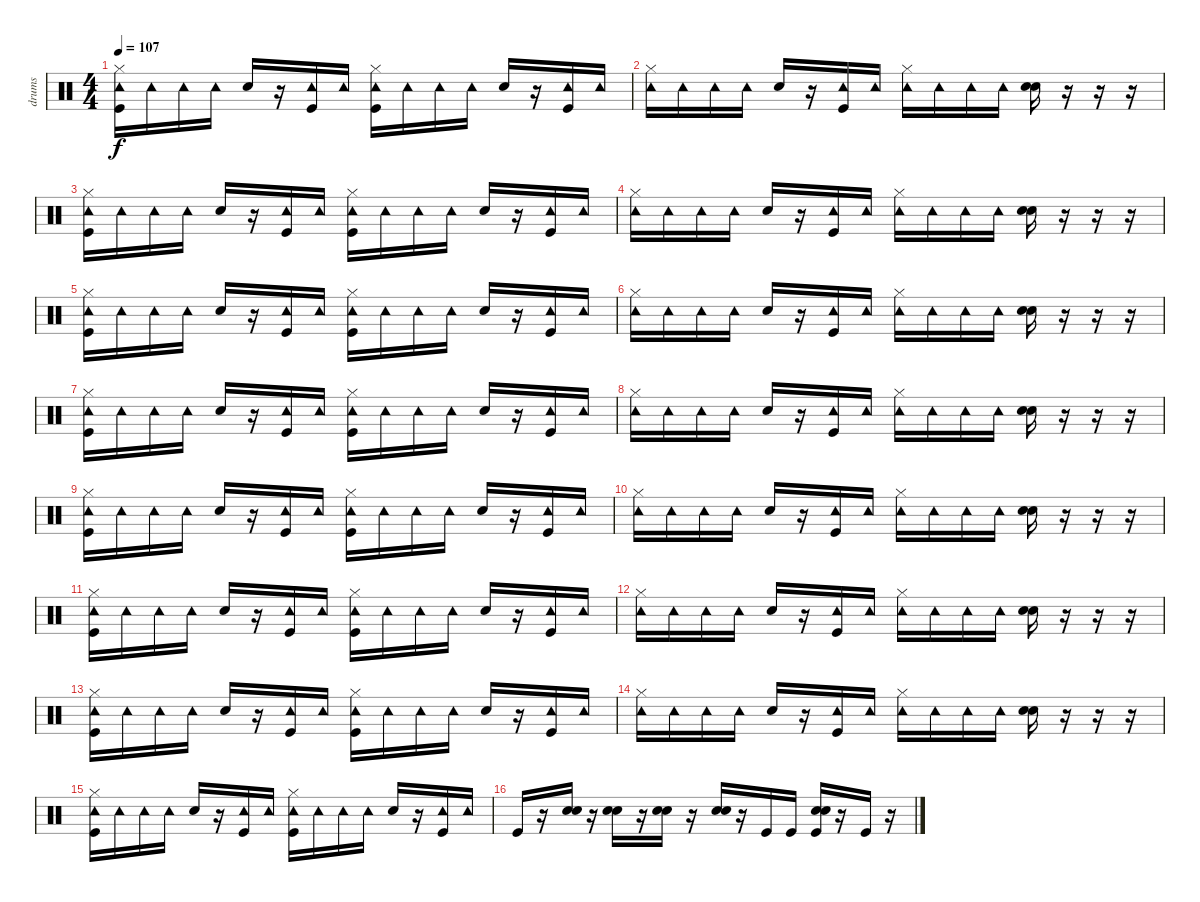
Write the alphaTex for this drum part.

\track ("drums" "drums") {instrument percussion}
\staff {score}
\articulation defaults
\ts (4 4)
\tempo 107
\clef neutral
\ks c
("Hi-Hat (closed)" "Tambourine (hit)" "Kick (hit)").16{dy f} "Tambourine (hit)".16 "Tambourine (hit)".16 "Tambourine (hit)".16 "Snare (hit) 2".16 r.16 ("Tambourine (hit)" "Kick (hit)").16 "Tambourine (hit)".16 ("Hi-Hat (closed)" "Tambourine (hit)" "Kick (hit)").16 "Tambourine (hit)".16 "Tambourine (hit)".16 "Tambourine (hit)".16 "Snare (hit) 2".16 r.16 ("Tambourine (hit)" "Kick (hit)").16 "Tambourine (hit)".16 |
("Hi-Hat (closed)" "Tambourine (hit)").16 "Tambourine (hit)".16 "Tambourine (hit)".16 "Tambourine (hit)".16 "Snare (hit) 2".16 r.16 ("Tambourine (hit)" "Kick (hit)").16 "Tambourine (hit)".16 ("Hi-Hat (closed)" "Tambourine (hit)").16 "Tambourine (hit)".16 "Tambourine (hit)".16 "Tambourine (hit)".16 ("Snare (hit) 2" "Electric Snare (hit)").16 r.16 r.16 r.16 |
("Hi-Hat (closed)" "Tambourine (hit)" "Kick (hit)").16 "Tambourine (hit)".16 "Tambourine (hit)".16 "Tambourine (hit)".16 "Snare (hit) 2".16 r.16 ("Tambourine (hit)" "Kick (hit)").16 "Tambourine (hit)".16 ("Hi-Hat (closed)" "Tambourine (hit)" "Kick (hit)").16 "Tambourine (hit)".16 "Tambourine (hit)".16 "Tambourine (hit)".16 "Snare (hit) 2".16 r.16 ("Tambourine (hit)" "Kick (hit)").16 "Tambourine (hit)".16 |
("Hi-Hat (closed)" "Tambourine (hit)").16 "Tambourine (hit)".16 "Tambourine (hit)".16 "Tambourine (hit)".16 "Snare (hit) 2".16 r.16 ("Tambourine (hit)" "Kick (hit)").16 "Tambourine (hit)".16 ("Hi-Hat (closed)" "Tambourine (hit)").16 "Tambourine (hit)".16 "Tambourine (hit)".16 "Tambourine (hit)".16 ("Snare (hit) 2" "Electric Snare (hit)").16 r.16 r.16 r.16 |
("Hi-Hat (closed)" "Tambourine (hit)" "Kick (hit)").16 "Tambourine (hit)".16 "Tambourine (hit)".16 "Tambourine (hit)".16 "Snare (hit) 2".16 r.16 ("Tambourine (hit)" "Kick (hit)").16 "Tambourine (hit)".16 ("Hi-Hat (closed)" "Tambourine (hit)" "Kick (hit)").16 "Tambourine (hit)".16 "Tambourine (hit)".16 "Tambourine (hit)".16 "Snare (hit) 2".16 r.16 ("Tambourine (hit)" "Kick (hit)").16 "Tambourine (hit)".16 |
("Hi-Hat (closed)" "Tambourine (hit)").16 "Tambourine (hit)".16 "Tambourine (hit)".16 "Tambourine (hit)".16 "Snare (hit) 2".16 r.16 ("Tambourine (hit)" "Kick (hit)").16 "Tambourine (hit)".16 ("Hi-Hat (closed)" "Tambourine (hit)").16 "Tambourine (hit)".16 "Tambourine (hit)".16 "Tambourine (hit)".16 ("Snare (hit) 2" "Electric Snare (hit)").16 r.16 r.16 r.16 |
("Hi-Hat (closed)" "Tambourine (hit)" "Kick (hit)").16 "Tambourine (hit)".16 "Tambourine (hit)".16 "Tambourine (hit)".16 "Snare (hit) 2".16 r.16 ("Tambourine (hit)" "Kick (hit)").16 "Tambourine (hit)".16 ("Hi-Hat (closed)" "Tambourine (hit)" "Kick (hit)").16 "Tambourine (hit)".16 "Tambourine (hit)".16 "Tambourine (hit)".16 "Snare (hit) 2".16 r.16 ("Tambourine (hit)" "Kick (hit)").16 "Tambourine (hit)".16 |
("Hi-Hat (closed)" "Tambourine (hit)").16 "Tambourine (hit)".16 "Tambourine (hit)".16 "Tambourine (hit)".16 "Snare (hit) 2".16 r.16 ("Tambourine (hit)" "Kick (hit)").16 "Tambourine (hit)".16 ("Hi-Hat (closed)" "Tambourine (hit)").16 "Tambourine (hit)".16 "Tambourine (hit)".16 "Tambourine (hit)".16 ("Snare (hit) 2" "Electric Snare (hit)").16 r.16 r.16 r.16 |
("Hi-Hat (closed)" "Tambourine (hit)" "Kick (hit)").16 "Tambourine (hit)".16 "Tambourine (hit)".16 "Tambourine (hit)".16 "Snare (hit) 2".16 r.16 ("Tambourine (hit)" "Kick (hit)").16 "Tambourine (hit)".16 ("Hi-Hat (closed)" "Tambourine (hit)" "Kick (hit)").16 "Tambourine (hit)".16 "Tambourine (hit)".16 "Tambourine (hit)".16 "Snare (hit) 2".16 r.16 ("Tambourine (hit)" "Kick (hit)").16 "Tambourine (hit)".16 |
("Hi-Hat (closed)" "Tambourine (hit)").16 "Tambourine (hit)".16 "Tambourine (hit)".16 "Tambourine (hit)".16 "Snare (hit) 2".16 r.16 ("Tambourine (hit)" "Kick (hit)").16 "Tambourine (hit)".16 ("Hi-Hat (closed)" "Tambourine (hit)").16 "Tambourine (hit)".16 "Tambourine (hit)".16 "Tambourine (hit)".16 ("Snare (hit) 2" "Electric Snare (hit)").16 r.16 r.16 r.16 |
("Hi-Hat (closed)" "Tambourine (hit)" "Kick (hit)").16 "Tambourine (hit)".16 "Tambourine (hit)".16 "Tambourine (hit)".16 "Snare (hit) 2".16 r.16 ("Tambourine (hit)" "Kick (hit)").16 "Tambourine (hit)".16 ("Hi-Hat (closed)" "Tambourine (hit)" "Kick (hit)").16 "Tambourine (hit)".16 "Tambourine (hit)".16 "Tambourine (hit)".16 "Snare (hit) 2".16 r.16 ("Tambourine (hit)" "Kick (hit)").16 "Tambourine (hit)".16 |
("Hi-Hat (closed)" "Tambourine (hit)").16 "Tambourine (hit)".16 "Tambourine (hit)".16 "Tambourine (hit)".16 "Snare (hit) 2".16 r.16 ("Tambourine (hit)" "Kick (hit)").16 "Tambourine (hit)".16 ("Hi-Hat (closed)" "Tambourine (hit)").16 "Tambourine (hit)".16 "Tambourine (hit)".16 "Tambourine (hit)".16 ("Snare (hit) 2" "Electric Snare (hit)").16 r.16 r.16 r.16 |
("Hi-Hat (closed)" "Tambourine (hit)" "Kick (hit)").16 "Tambourine (hit)".16 "Tambourine (hit)".16 "Tambourine (hit)".16 "Snare (hit) 2".16 r.16 ("Tambourine (hit)" "Kick (hit)").16 "Tambourine (hit)".16 ("Hi-Hat (closed)" "Tambourine (hit)" "Kick (hit)").16 "Tambourine (hit)".16 "Tambourine (hit)".16 "Tambourine (hit)".16 "Snare (hit) 2".16 r.16 ("Tambourine (hit)" "Kick (hit)").16 "Tambourine (hit)".16 |
("Hi-Hat (closed)" "Tambourine (hit)").16 "Tambourine (hit)".16 "Tambourine (hit)".16 "Tambourine (hit)".16 "Snare (hit) 2".16 r.16 ("Tambourine (hit)" "Kick (hit)").16 "Tambourine (hit)".16 ("Hi-Hat (closed)" "Tambourine (hit)").16 "Tambourine (hit)".16 "Tambourine (hit)".16 "Tambourine (hit)".16 ("Snare (hit) 2" "Electric Snare (hit)").16 r.16 r.16 r.16 |
("Hi-Hat (closed)" "Tambourine (hit)" "Kick (hit)").16 "Tambourine (hit)".16 "Tambourine (hit)".16 "Tambourine (hit)".16 "Snare (hit) 2".16 r.16 ("Tambourine (hit)" "Kick (hit)").16 "Tambourine (hit)".16 ("Hi-Hat (closed)" "Tambourine (hit)" "Kick (hit)").16 "Tambourine (hit)".16 "Tambourine (hit)".16 "Tambourine (hit)".16 "Snare (hit) 2".16 r.16 ("Tambourine (hit)" "Kick (hit)").16 "Tambourine (hit)".16 |
"Kick (hit)".16 r.16 ("Snare (hit) 2" "Electric Snare (hit)").16 r.16 ("Snare (hit) 2" "Electric Snare (hit)").16 r.16 ("Snare (hit) 2" "Electric Snare (hit)").16 r.16 ("Snare (hit) 2" "Electric Snare (hit)").16 r.16 "Kick (hit)".16 "Kick (hit)".16 ("Snare (hit) 2" "Electric Snare (hit)" "Kick (hit)").16 r.16 "Kick (hit)".16 r.16
